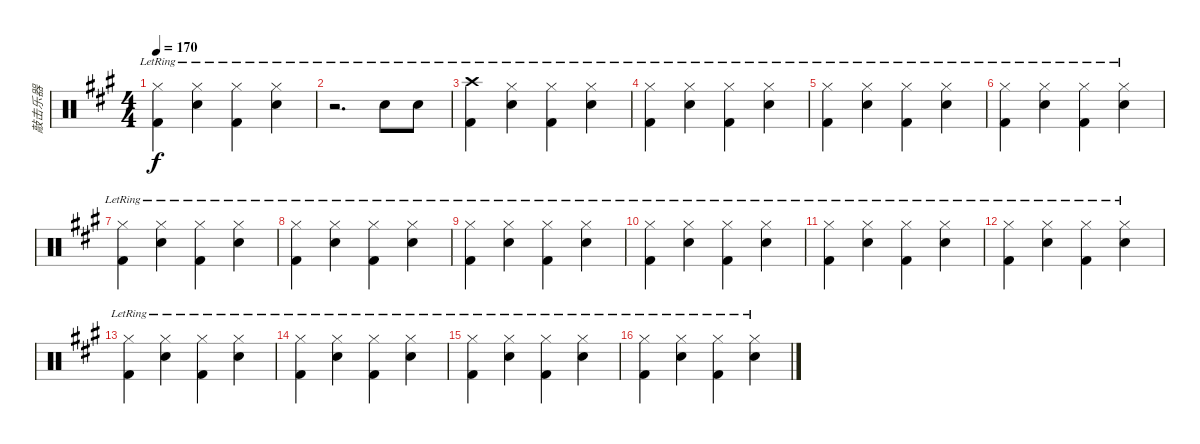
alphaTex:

\track ("敲击乐器" "敲击乐器") {instrument percussion}
\staff {score}
\articulation defaults
\ts (4 4)
\tempo 170
\clef neutral
\ks a
("Hi-Hat (closed)"{lr} "Kick (hit) 2"{lr}).4{dy f} ("Hi-Hat (closed)"{lr} "Snare (hit) 2"{lr}).4 ("Hi-Hat (closed)"{lr} "Kick (hit) 2"{lr}).4 ("Hi-Hat (closed)"{lr} "Snare (hit) 2"{lr}).4 |
r.2{d} "Snare (hit) 2"{lr}.8 "Snare (hit) 2"{lr}.8 |
("Crash high (hit)"{lr} "Kick (hit) 2"{lr}).4 ("Hi-Hat (closed)"{lr} "Snare (hit) 2"{lr}).4 ("Hi-Hat (closed)"{lr} "Kick (hit) 2"{lr}).4 ("Hi-Hat (closed)"{lr} "Snare (hit) 2"{lr}).4 |
("Hi-Hat (closed)"{lr} "Kick (hit) 2"{lr}).4 ("Hi-Hat (closed)"{lr} "Snare (hit) 2"{lr}).4 ("Hi-Hat (closed)"{lr} "Kick (hit) 2"{lr}).4 ("Hi-Hat (closed)"{lr} "Snare (hit) 2"{lr}).4 |
("Hi-Hat (closed)"{lr} "Kick (hit) 2"{lr}).4 ("Hi-Hat (closed)"{lr} "Snare (hit) 2"{lr}).4 ("Hi-Hat (closed)"{lr} "Kick (hit) 2"{lr}).4 ("Hi-Hat (closed)"{lr} "Snare (hit) 2"{lr}).4 |
("Hi-Hat (closed)"{lr} "Kick (hit) 2"{lr}).4 ("Hi-Hat (closed)"{lr} "Snare (hit) 2"{lr}).4 ("Hi-Hat (closed)"{lr} "Kick (hit) 2"{lr}).4 ("Hi-Hat (closed)"{lr} "Snare (hit) 2"{lr}).4 |
("Hi-Hat (closed)"{lr} "Kick (hit) 2"{lr}).4 ("Hi-Hat (closed)"{lr} "Snare (hit) 2"{lr}).4 ("Hi-Hat (closed)"{lr} "Kick (hit) 2"{lr}).4 ("Hi-Hat (closed)"{lr} "Snare (hit) 2"{lr}).4 |
("Hi-Hat (closed)"{lr} "Kick (hit) 2"{lr}).4 ("Hi-Hat (closed)"{lr} "Snare (hit) 2"{lr}).4 ("Hi-Hat (closed)"{lr} "Kick (hit) 2"{lr}).4 ("Hi-Hat (closed)"{lr} "Snare (hit) 2"{lr}).4 |
("Hi-Hat (closed)"{lr} "Kick (hit) 2"{lr}).4 ("Hi-Hat (closed)"{lr} "Snare (hit) 2"{lr}).4 ("Hi-Hat (closed)"{lr} "Kick (hit) 2"{lr}).4 ("Hi-Hat (closed)"{lr} "Snare (hit) 2"{lr}).4 |
("Hi-Hat (closed)"{lr} "Kick (hit) 2"{lr}).4 ("Hi-Hat (closed)"{lr} "Snare (hit) 2"{lr}).4 ("Hi-Hat (closed)"{lr} "Kick (hit) 2"{lr}).4 ("Hi-Hat (closed)"{lr} "Snare (hit) 2"{lr}).4 |
("Hi-Hat (closed)"{lr} "Kick (hit) 2"{lr}).4 ("Hi-Hat (closed)"{lr} "Snare (hit) 2"{lr}).4 ("Hi-Hat (closed)"{lr} "Kick (hit) 2"{lr}).4 ("Hi-Hat (closed)"{lr} "Snare (hit) 2"{lr}).4 |
("Hi-Hat (closed)"{lr} "Kick (hit) 2"{lr}).4 ("Hi-Hat (closed)"{lr} "Snare (hit) 2"{lr}).4 ("Hi-Hat (closed)"{lr} "Kick (hit) 2"{lr}).4 ("Hi-Hat (closed)"{lr} "Snare (hit) 2"{lr}).4 |
("Hi-Hat (closed)"{lr} "Kick (hit) 2"{lr}).4 ("Hi-Hat (closed)"{lr} "Snare (hit) 2"{lr}).4 ("Hi-Hat (closed)"{lr} "Kick (hit) 2"{lr}).4 ("Hi-Hat (closed)"{lr} "Snare (hit) 2"{lr}).4 |
("Hi-Hat (closed)"{lr} "Kick (hit) 2"{lr}).4 ("Hi-Hat (closed)"{lr} "Snare (hit) 2"{lr}).4 ("Hi-Hat (closed)"{lr} "Kick (hit) 2"{lr}).4 ("Hi-Hat (closed)"{lr} "Snare (hit) 2"{lr}).4 |
("Hi-Hat (closed)"{lr} "Kick (hit) 2"{lr}).4 ("Hi-Hat (closed)"{lr} "Snare (hit) 2"{lr}).4 ("Hi-Hat (closed)"{lr} "Kick (hit) 2"{lr}).4 ("Hi-Hat (closed)"{lr} "Snare (hit) 2"{lr}).4 |
("Hi-Hat (closed)"{lr} "Kick (hit) 2"{lr}).4 ("Hi-Hat (closed)"{lr} "Snare (hit) 2"{lr}).4 ("Hi-Hat (closed)"{lr} "Kick (hit) 2"{lr}).4 ("Hi-Hat (closed)"{lr} "Snare (hit) 2"{lr}).4
